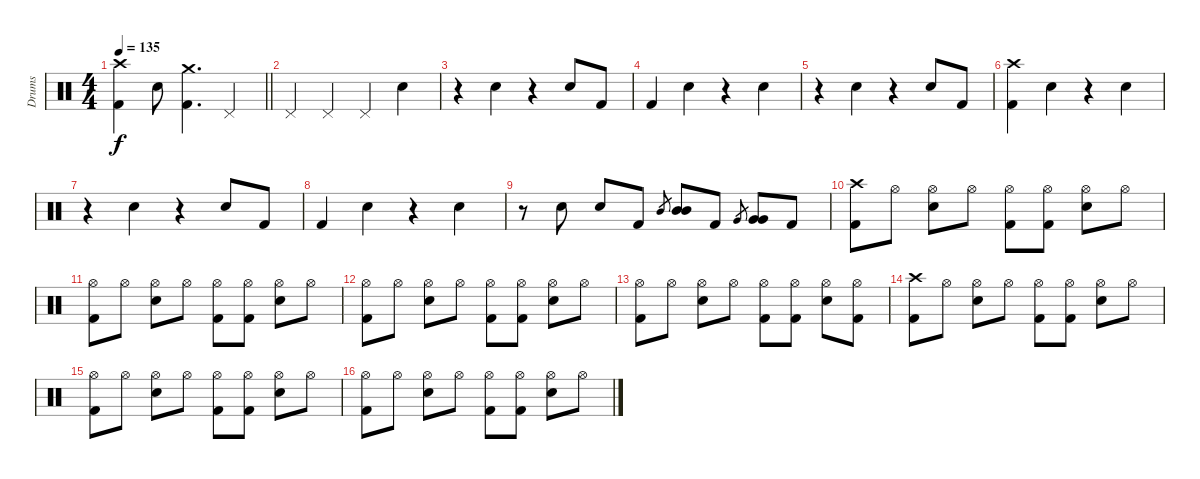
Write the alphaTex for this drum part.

\track ("Drums" "Drums") {instrument percussion}
\staff {score}
\articulation defaults
\ts (4 4)
\tempo 135
\clef neutral
\barLineRight lightlight
\ks aminor
("Crash high (hit)" "Kick (hit) 2").4{dy f} "Electric Snare (hit)".8 ("Crash medium (hit)" "Kick (hit) 2").4{d} "Pedal Hi-Hat (hit)".4 |
"Pedal Hi-Hat (hit)".4 "Pedal Hi-Hat (hit)".4 "Pedal Hi-Hat (hit)".4 "Electric Snare (hit)".4 |
r.4 "Electric Snare (hit)".4 r.4 "Electric Snare (hit)".8 "Kick (hit) 2".8 |
"Kick (hit) 2".4 "Electric Snare (hit)".4 r.4 "Electric Snare (hit)".4 |
r.4 "Electric Snare (hit)".4 r.4 "Electric Snare (hit)".8 "Kick (hit) 2".8 |
("Crash high (hit)" "Kick (hit) 2").4 "Electric Snare (hit)".4 r.4 "Electric Snare (hit)".4 |
r.4 "Electric Snare (hit)".4 r.4 "Electric Snare (hit)".8 "Kick (hit) 2".8 |
"Kick (hit) 2".4 "Electric Snare (hit)".4 r.4 "Electric Snare (hit)".4 |
r.8 "Electric Snare (hit)".8 "Electric Snare (hit)".8 "Kick (hit) 2".8 "Mid Tom (hit)".8{gr} ("Mid Tom (hit)" "Mid Tom (hit)").8 "Kick (hit) 2".8 "Very Low Tom (hit)".8{gr} ("Very Low Tom (hit)" "Very Low Tom (hit)").8 "Kick (hit) 2".8 |
("Crash high (hit)" "Kick (hit) 2").8 "Hi-Hat (open)".8 ("Hi-Hat (open)" "Electric Snare (hit)").8 "Hi-Hat (open)".8 ("Hi-Hat (open)" "Kick (hit) 2").8 ("Hi-Hat (open)" "Kick (hit) 2").8 ("Hi-Hat (open)" "Electric Snare (hit)").8 "Hi-Hat (open)".8 |
("Hi-Hat (open)" "Kick (hit) 2").8 "Hi-Hat (open)".8 ("Hi-Hat (open)" "Electric Snare (hit)").8 "Hi-Hat (open)".8 ("Hi-Hat (open)" "Kick (hit) 2").8 ("Hi-Hat (open)" "Kick (hit) 2").8 ("Hi-Hat (open)" "Electric Snare (hit)").8 "Hi-Hat (open)".8 |
("Hi-Hat (open)" "Kick (hit) 2").8 "Hi-Hat (open)".8 ("Hi-Hat (open)" "Electric Snare (hit)").8 "Hi-Hat (open)".8 ("Hi-Hat (open)" "Kick (hit) 2").8 ("Hi-Hat (open)" "Kick (hit) 2").8 ("Hi-Hat (open)" "Electric Snare (hit)").8 "Hi-Hat (open)".8 |
("Hi-Hat (open)" "Kick (hit) 2").8 "Hi-Hat (open)".8 ("Hi-Hat (open)" "Electric Snare (hit)").8 "Hi-Hat (open)".8 ("Hi-Hat (open)" "Kick (hit) 2").8 ("Hi-Hat (open)" "Kick (hit) 2").8 ("Hi-Hat (open)" "Electric Snare (hit)").8 ("Hi-Hat (open)" "Kick (hit) 2").8 |
("Crash high (hit)" "Kick (hit) 2").8 "Hi-Hat (open)".8 ("Hi-Hat (open)" "Electric Snare (hit)").8 "Hi-Hat (open)".8 ("Hi-Hat (open)" "Kick (hit) 2").8 ("Hi-Hat (open)" "Kick (hit) 2").8 ("Hi-Hat (open)" "Electric Snare (hit)").8 "Hi-Hat (open)".8 |
("Hi-Hat (open)" "Kick (hit) 2").8 "Hi-Hat (open)".8 ("Hi-Hat (open)" "Electric Snare (hit)").8 "Hi-Hat (open)".8 ("Hi-Hat (open)" "Kick (hit) 2").8 ("Hi-Hat (open)" "Kick (hit) 2").8 ("Hi-Hat (open)" "Electric Snare (hit)").8 "Hi-Hat (open)".8 |
("Hi-Hat (open)" "Kick (hit) 2").8 "Hi-Hat (open)".8 ("Hi-Hat (open)" "Electric Snare (hit)").8 "Hi-Hat (open)".8 ("Hi-Hat (open)" "Kick (hit) 2").8 ("Hi-Hat (open)" "Kick (hit) 2").8 ("Hi-Hat (open)" "Electric Snare (hit)").8 "Hi-Hat (open)".8
